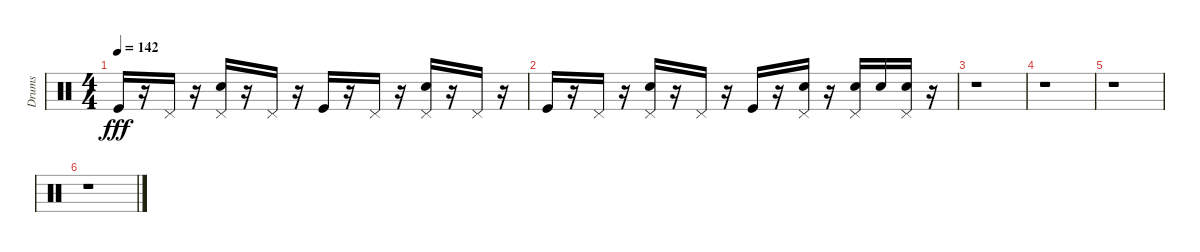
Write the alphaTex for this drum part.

\track ("Drums" "Drums") {instrument percussion}
\staff {score}
\articulation defaults
\ts (4 4)
\tempo 142
\clef neutral
\ks c "Kick (hit)".16{dy fff}
r.16 "Pedal Hi-Hat (hit)".16 r.16 ("Snare (hit) 2" "Pedal Hi-Hat (hit)").16 r.16 "Pedal Hi-Hat (hit)".16 r.16 "Kick (hit)".16 r.16 "Pedal Hi-Hat (hit)".16 r.16 ("Snare (hit) 2" "Pedal Hi-Hat (hit)").16 r.16 "Pedal Hi-Hat (hit)".16 r.16 |
"Kick (hit)".16 r.16 "Pedal Hi-Hat (hit)".16 r.16 ("Snare (hit) 2" "Pedal Hi-Hat (hit)").16 r.16 "Pedal Hi-Hat (hit)".16 r.16 "Kick (hit)".16 r.16 ("Pedal Hi-Hat (hit)" "Snare (hit) 2").16 r.16 ("Snare (hit) 2" "Pedal Hi-Hat (hit)").16 "Snare (hit) 2".16 ("Pedal Hi-Hat (hit)" "Snare (hit) 2").16 r.16 |
r.1 |
r.1 |
r.1 |
r.1
